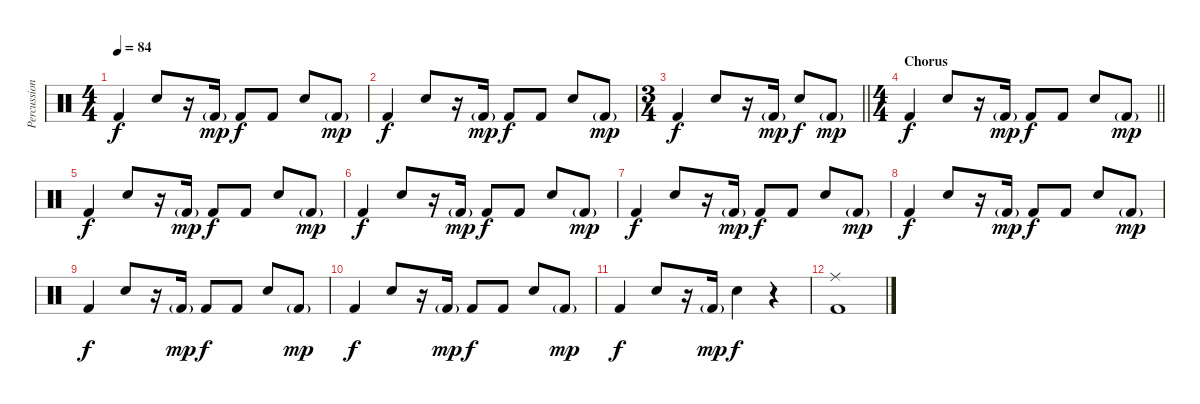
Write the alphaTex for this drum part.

\track ("Percussion" "Percussion") {instrument percussion}
\staff {score}
\articulation defaults
\ts (4 4)
\tempo 84
\clef neutral
\ks c "Kick (hit) 2".4{dy f} "Snare (hit) 2".8
r.16 "Kick (hit) 2"{g}.16{dy mp} "Kick (hit) 2".8{dy f} "Kick (hit) 2".8 "Snare (hit) 2".8 "Kick (hit) 2"{g}.8{dy mp} |
"Kick (hit) 2".4{dy f} "Snare (hit) 2".8 r.16 "Kick (hit) 2"{g}.16{dy mp} "Kick (hit) 2".8{dy f} "Kick (hit) 2".8 "Snare (hit) 2".8 "Kick (hit) 2"{g}.8{dy mp} |
\ts (3 4)
\barLineRight lightlight "Kick (hit) 2".4{dy f} "Snare (hit) 2".8
r.16 "Kick (hit) 2"{g}.16{dy mp} "Snare (hit) 2".8{dy f} "Kick (hit) 2"{g}.8{dy mp} |
\ts (4 4)
\section ("" "Chorus")
\barLineRight lightlight "Kick (hit) 2".4{dy f} "Snare (hit) 2".8
r.16 "Kick (hit) 2"{g}.16{dy mp} "Kick (hit) 2".8{dy f} "Kick (hit) 2".8 "Snare (hit) 2".8 "Kick (hit) 2"{g}.8{dy mp} |
"Kick (hit) 2".4{dy f} "Snare (hit) 2".8 r.16 "Kick (hit) 2"{g}.16{dy mp} "Kick (hit) 2".8{dy f} "Kick (hit) 2".8 "Snare (hit) 2".8 "Kick (hit) 2"{g}.8{dy mp} |
"Kick (hit) 2".4{dy f} "Snare (hit) 2".8 r.16 "Kick (hit) 2"{g}.16{dy mp} "Kick (hit) 2".8{dy f} "Kick (hit) 2".8 "Snare (hit) 2".8 "Kick (hit) 2"{g}.8{dy mp} |
"Kick (hit) 2".4{dy f} "Snare (hit) 2".8 r.16 "Kick (hit) 2"{g}.16{dy mp} "Kick (hit) 2".8{dy f} "Kick (hit) 2".8 "Snare (hit) 2".8 "Kick (hit) 2"{g}.8{dy mp} |
"Kick (hit) 2".4{dy f} "Snare (hit) 2".8 r.16 "Kick (hit) 2"{g}.16{dy mp} "Kick (hit) 2".8{dy f} "Kick (hit) 2".8 "Snare (hit) 2".8 "Kick (hit) 2"{g}.8{dy mp} |
"Kick (hit) 2".4{dy f} "Snare (hit) 2".8 r.16 "Kick (hit) 2"{g}.16{dy mp} "Kick (hit) 2".8{dy f} "Kick (hit) 2".8 "Snare (hit) 2".8 "Kick (hit) 2"{g}.8{dy mp} |
"Kick (hit) 2".4{dy f} "Snare (hit) 2".8 r.16 "Kick (hit) 2"{g}.16{dy mp} "Kick (hit) 2".8{dy f} "Kick (hit) 2".8 "Snare (hit) 2".8 "Kick (hit) 2"{g}.8{dy mp} |
"Kick (hit) 2".4{dy f} "Snare (hit) 2".8 r.16 "Kick (hit) 2"{g}.16{dy mp} "Snare (hit) 2".4{dy f} r.4 |
("Ride (middle)" "Kick (hit) 2").1
